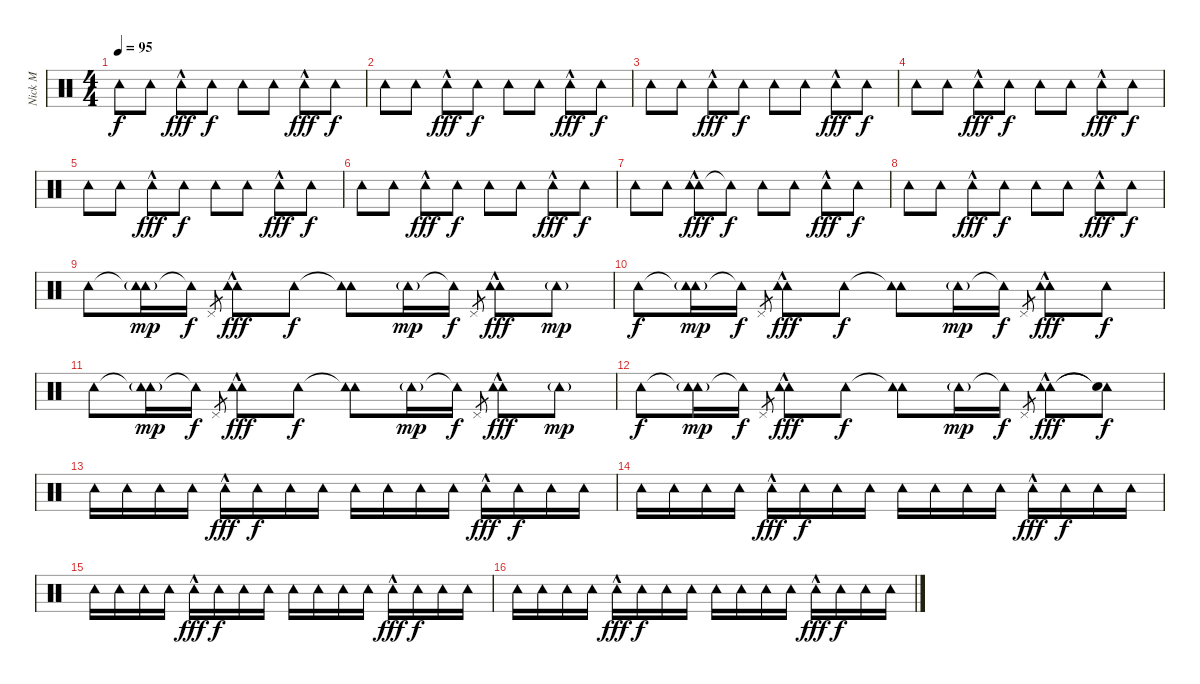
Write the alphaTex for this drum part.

\track ("Nick M" "Nick M") {instrument percussion}
\staff {score}
\articulation defaults
\ts (4 4)
\tempo 95
\clef neutral
\ks c "Tambourine (hit)".8{dy f} "Tambourine (hit)".8 "Tambourine (hit)"{hac}.8{dy fff} "Tambourine (hit)".8{dy f} "Tambourine (hit)".8 "Tambourine (hit)".8 "Tambourine (hit)"{hac}.8{dy fff} "Tambourine (hit)".8{dy f}
|
"Tambourine (hit)".8 "Tambourine (hit)".8 "Tambourine (hit)"{hac}.8{dy fff} "Tambourine (hit)".8{dy f} "Tambourine (hit)".8 "Tambourine (hit)".8 "Tambourine (hit)"{hac}.8{dy fff} "Tambourine (hit)".8{dy f} |
"Tambourine (hit)".8 "Tambourine (hit)".8 "Tambourine (hit)"{hac}.8{dy fff} "Tambourine (hit)".8{dy f} "Tambourine (hit)".8 "Tambourine (hit)".8 "Tambourine (hit)"{hac}.8{dy fff} "Tambourine (hit)".8{dy f} |
"Tambourine (hit)".8 "Tambourine (hit)".8 "Tambourine (hit)"{hac}.8{dy fff} "Tambourine (hit)".8{dy f} "Tambourine (hit)".8 "Tambourine (hit)".8 "Tambourine (hit)"{hac}.8{dy fff} "Tambourine (hit)".8{dy f} |
"Tambourine (hit)".8 "Tambourine (hit)".8 "Tambourine (hit)"{hac}.8{dy fff} "Tambourine (hit)".8{dy f} "Tambourine (hit)".8 "Tambourine (hit)".8 "Tambourine (hit)"{hac}.8{dy fff} "Tambourine (hit)".8{dy f} |
"Tambourine (hit)".8 "Tambourine (hit)".8 "Tambourine (hit)"{hac}.8{dy fff} "Tambourine (hit)".8{dy f} "Tambourine (hit)".8 "Tambourine (hit)".8 "Tambourine (hit)"{hac}.8{dy fff} "Tambourine (hit)".8{dy f} |
"Tambourine (hit)".8 "Tambourine (hit)".8 ("Tambourine (hit)"{hac} "Tambourine (hit)").8{dy fff} "Tambourine (hit)"{t}.8{dy f} "Tambourine (hit)".8 "Tambourine (hit)".8 "Tambourine (hit)"{hac}.8{dy fff} "Tambourine (hit)".8{dy f} |
"Tambourine (hit)".8 "Tambourine (hit)".8 "Tambourine (hit)"{hac}.8{dy fff} "Tambourine (hit)".8{dy f} "Tambourine (hit)".8 "Tambourine (hit)".8 "Tambourine (hit)"{hac}.8{dy fff} "Tambourine (hit)".8{dy f} |
"Tambourine (hit)".8 ("Tambourine (hit)"{t} "Tambourine (hit)"{g}).16{dy mp} "Tambourine (hit)"{t}.16{dy f} "Pedal Hi-Hat (hit)".8{gr} ("Tambourine (hit)" "Tambourine (hit)"{hac}).8{dy fff} "Tambourine (hit)".8{dy f} ("Tambourine (hit)"{t} "Tambourine (hit)").8 "Tambourine (hit)"{g}.16{dy mp} "Tambourine (hit)"{t}.16{dy f} "Pedal Hi-Hat (hit)".8{gr} ("Tambourine (hit)" "Tambourine (hit)"{hac}).8{dy fff} "Tambourine (hit)"{g}.8{dy mp} |
"Tambourine (hit)".8{dy f} ("Tambourine (hit)"{t} "Tambourine (hit)"{g}).16{dy mp} "Tambourine (hit)"{t}.16{dy f} "Pedal Hi-Hat (hit)".8{gr} ("Tambourine (hit)" "Tambourine (hit)"{hac}).8{dy fff} "Tambourine (hit)".8{dy f} ("Tambourine (hit)"{t} "Tambourine (hit)").8 "Tambourine (hit)"{g}.16{dy mp} "Tambourine (hit)"{t}.16{dy f} "Pedal Hi-Hat (hit)".8{gr} ("Tambourine (hit)" "Tambourine (hit)"{hac}).8{dy fff} "Tambourine (hit)".8{dy f} |
"Tambourine (hit)".8 ("Tambourine (hit)"{t} "Tambourine (hit)"{g}).16{dy mp} "Tambourine (hit)"{t}.16{dy f} "Pedal Hi-Hat (hit)".8{gr} ("Tambourine (hit)" "Tambourine (hit)"{hac}).8{dy fff} "Tambourine (hit)".8{dy f} ("Tambourine (hit)"{t} "Tambourine (hit)").8 "Tambourine (hit)"{g}.16{dy mp} "Tambourine (hit)"{t}.16{dy f} "Pedal Hi-Hat (hit)".8{gr} ("Tambourine (hit)" "Tambourine (hit)"{hac}).8{dy fff} "Tambourine (hit)"{g}.8{dy mp} |
"Tambourine (hit)".8{dy f} ("Tambourine (hit)"{t} "Tambourine (hit)"{g}).16{dy mp} "Tambourine (hit)"{t}.16{dy f} "Pedal Hi-Hat (hit)".8{gr} ("Tambourine (hit)" "Tambourine (hit)"{hac}).8{dy fff} "Tambourine (hit)".8{dy f} ("Tambourine (hit)"{t} "Tambourine (hit)").8 "Tambourine (hit)"{g}.16{dy mp} "Tambourine (hit)"{t}.16{dy f} "Pedal Hi-Hat (hit)".8{gr} ("Tambourine (hit)" "Tambourine (hit)"{hac}).8{dy fff} ("Tambourine (hit)"{t} "Snare (hit)"{t}).8{dy f} |
"Tambourine (hit)".16 "Tambourine (hit)".16 "Tambourine (hit)".16 "Tambourine (hit)".16 "Tambourine (hit)"{hac}.16{dy fff} "Tambourine (hit)".16{dy f} "Tambourine (hit)".16 "Tambourine (hit)".16 "Tambourine (hit)".16 "Tambourine (hit)".16 "Tambourine (hit)".16 "Tambourine (hit)".16 "Tambourine (hit)"{hac}.16{dy fff} "Tambourine (hit)".16{dy f} "Tambourine (hit)".16 "Tambourine (hit)".16 |
"Tambourine (hit)".16 "Tambourine (hit)".16 "Tambourine (hit)".16 "Tambourine (hit)".16 "Tambourine (hit)"{hac}.16{dy fff} "Tambourine (hit)".16{dy f} "Tambourine (hit)".16 "Tambourine (hit)".16 "Tambourine (hit)".16 "Tambourine (hit)".16 "Tambourine (hit)".16 "Tambourine (hit)".16 "Tambourine (hit)"{hac}.16{dy fff} "Tambourine (hit)".16{dy f} "Tambourine (hit)".16 "Tambourine (hit)".16 |
"Tambourine (hit)".16 "Tambourine (hit)".16 "Tambourine (hit)".16 "Tambourine (hit)".16 "Tambourine (hit)"{hac}.16{dy fff} "Tambourine (hit)".16{dy f} "Tambourine (hit)".16 "Tambourine (hit)".16 "Tambourine (hit)".16 "Tambourine (hit)".16 "Tambourine (hit)".16 "Tambourine (hit)".16 "Tambourine (hit)"{hac}.16{dy fff} "Tambourine (hit)".16{dy f} "Tambourine (hit)".16 "Tambourine (hit)".16 |
"Tambourine (hit)".16 "Tambourine (hit)".16 "Tambourine (hit)".16 "Tambourine (hit)".16 "Tambourine (hit)"{hac}.16{dy fff} "Tambourine (hit)".16{dy f} "Tambourine (hit)".16 "Tambourine (hit)".16 "Tambourine (hit)".16 "Tambourine (hit)".16 "Tambourine (hit)".16 "Tambourine (hit)".16 "Tambourine (hit)"{hac}.16{dy fff} "Tambourine (hit)".16{dy f} "Tambourine (hit)".16 "Tambourine (hit)".16
